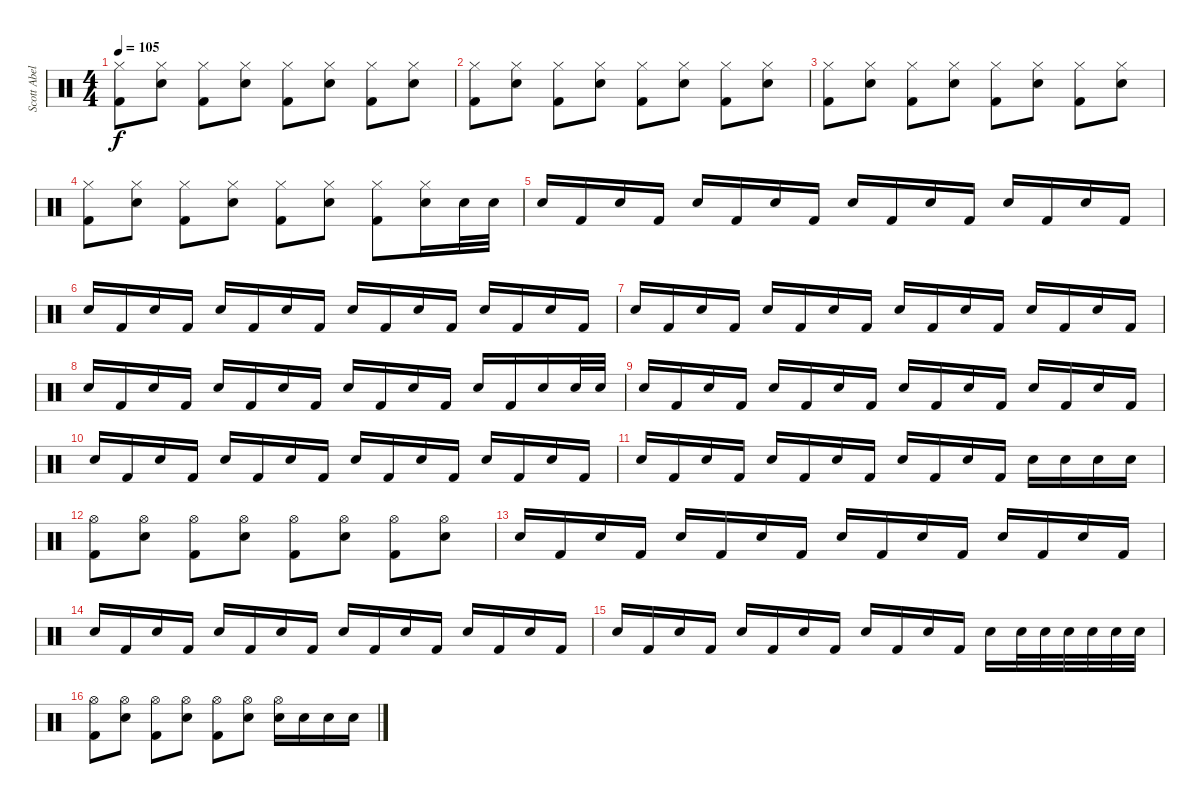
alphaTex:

\track ("Scott Abels - Drums" "Scott Abel") {instrument percussion}
\staff {score}
\articulation defaults
\ts (4 4)
\tempo 105
\clef neutral
\ks c
("Hi-Hat (closed)" "Kick (hit) 2").8{dy f} ("Hi-Hat (closed)" "Electric Snare (hit)").8 ("Hi-Hat (closed)" "Kick (hit) 2").8 ("Hi-Hat (closed)" "Electric Snare (hit)").8 ("Hi-Hat (closed)" "Kick (hit) 2").8 ("Hi-Hat (closed)" "Electric Snare (hit)").8 ("Hi-Hat (closed)" "Kick (hit) 2").8 ("Hi-Hat (closed)" "Electric Snare (hit)").8 |
("Hi-Hat (closed)" "Kick (hit) 2").8 ("Hi-Hat (closed)" "Electric Snare (hit)").8 ("Hi-Hat (closed)" "Kick (hit) 2").8 ("Hi-Hat (closed)" "Electric Snare (hit)").8 ("Hi-Hat (closed)" "Kick (hit) 2").8 ("Hi-Hat (closed)" "Electric Snare (hit)").8 ("Hi-Hat (closed)" "Kick (hit) 2").8 ("Hi-Hat (closed)" "Electric Snare (hit)").8 |
("Hi-Hat (closed)" "Kick (hit) 2").8 ("Hi-Hat (closed)" "Electric Snare (hit)").8 ("Hi-Hat (closed)" "Kick (hit) 2").8 ("Hi-Hat (closed)" "Electric Snare (hit)").8 ("Hi-Hat (closed)" "Kick (hit) 2").8 ("Hi-Hat (closed)" "Electric Snare (hit)").8 ("Hi-Hat (closed)" "Kick (hit) 2").8 ("Hi-Hat (closed)" "Electric Snare (hit)").8 |
("Hi-Hat (closed)" "Kick (hit) 2").8 ("Hi-Hat (closed)" "Electric Snare (hit)").8 ("Hi-Hat (closed)" "Kick (hit) 2").8 ("Hi-Hat (closed)" "Electric Snare (hit)").8 ("Hi-Hat (closed)" "Kick (hit) 2").8 ("Hi-Hat (closed)" "Electric Snare (hit)").8 ("Hi-Hat (closed)" "Kick (hit) 2").8 ("Hi-Hat (closed)" "Electric Snare (hit)").16 "Electric Snare (hit)".32 "Electric Snare (hit)".32 |
"Electric Snare (hit)".16 "Kick (hit) 2".16 "Electric Snare (hit)".16 "Kick (hit) 2".16 "Electric Snare (hit)".16 "Kick (hit) 2".16 "Electric Snare (hit)".16 "Kick (hit) 2".16 "Electric Snare (hit)".16 "Kick (hit) 2".16 "Electric Snare (hit)".16 "Kick (hit) 2".16 "Electric Snare (hit)".16 "Kick (hit) 2".16 "Electric Snare (hit)".16 "Kick (hit) 2".16 |
"Electric Snare (hit)".16 "Kick (hit) 2".16 "Electric Snare (hit)".16 "Kick (hit) 2".16 "Electric Snare (hit)".16 "Kick (hit) 2".16 "Electric Snare (hit)".16 "Kick (hit) 2".16 "Electric Snare (hit)".16 "Kick (hit) 2".16 "Electric Snare (hit)".16 "Kick (hit) 2".16 "Electric Snare (hit)".16 "Kick (hit) 2".16 "Electric Snare (hit)".16 "Kick (hit) 2".16 |
"Electric Snare (hit)".16 "Kick (hit) 2".16 "Electric Snare (hit)".16 "Kick (hit) 2".16 "Electric Snare (hit)".16 "Kick (hit) 2".16 "Electric Snare (hit)".16 "Kick (hit) 2".16 "Electric Snare (hit)".16 "Kick (hit) 2".16 "Electric Snare (hit)".16 "Kick (hit) 2".16 "Electric Snare (hit)".16 "Kick (hit) 2".16 "Electric Snare (hit)".16 "Kick (hit) 2".16 |
"Electric Snare (hit)".16 "Kick (hit) 2".16 "Electric Snare (hit)".16 "Kick (hit) 2".16 "Electric Snare (hit)".16 "Kick (hit) 2".16 "Electric Snare (hit)".16 "Kick (hit) 2".16 "Electric Snare (hit)".16 "Kick (hit) 2".16 "Electric Snare (hit)".16 "Kick (hit) 2".16 "Electric Snare (hit)".16 "Kick (hit) 2".16 "Electric Snare (hit)".16 "Electric Snare (hit)".32 "Electric Snare (hit)".32 |
"Electric Snare (hit)".16 "Kick (hit) 2".16 "Electric Snare (hit)".16 "Kick (hit) 2".16 "Electric Snare (hit)".16 "Kick (hit) 2".16 "Electric Snare (hit)".16 "Kick (hit) 2".16 "Electric Snare (hit)".16 "Kick (hit) 2".16 "Electric Snare (hit)".16 "Kick (hit) 2".16 "Electric Snare (hit)".16 "Kick (hit) 2".16 "Electric Snare (hit)".16 "Kick (hit) 2".16 |
"Electric Snare (hit)".16 "Kick (hit) 2".16 "Electric Snare (hit)".16 "Kick (hit) 2".16 "Electric Snare (hit)".16 "Kick (hit) 2".16 "Electric Snare (hit)".16 "Kick (hit) 2".16 "Electric Snare (hit)".16 "Kick (hit) 2".16 "Electric Snare (hit)".16 "Kick (hit) 2".16 "Electric Snare (hit)".16 "Kick (hit) 2".16 "Electric Snare (hit)".16 "Kick (hit) 2".16 |
"Electric Snare (hit)".16 "Kick (hit) 2".16 "Electric Snare (hit)".16 "Kick (hit) 2".16 "Electric Snare (hit)".16 "Kick (hit) 2".16 "Electric Snare (hit)".16 "Kick (hit) 2".16 "Electric Snare (hit)".16 "Kick (hit) 2".16 "Electric Snare (hit)".16 "Kick (hit) 2".16 "Electric Snare (hit)".16 "Electric Snare (hit)".16 "Electric Snare (hit)".16 "Electric Snare (hit)".16 |
("Hi-Hat (open)" "Kick (hit) 2").8 ("Hi-Hat (open)" "Electric Snare (hit)").8 ("Hi-Hat (open)" "Kick (hit) 2").8 ("Hi-Hat (open)" "Electric Snare (hit)").8 ("Hi-Hat (open)" "Kick (hit) 2").8 ("Hi-Hat (open)" "Electric Snare (hit)").8 ("Hi-Hat (open)" "Kick (hit) 2").8 ("Hi-Hat (open)" "Electric Snare (hit)").8 |
"Electric Snare (hit)".16 "Kick (hit) 2".16 "Electric Snare (hit)".16 "Kick (hit) 2".16 "Electric Snare (hit)".16 "Kick (hit) 2".16 "Electric Snare (hit)".16 "Kick (hit) 2".16 "Electric Snare (hit)".16 "Kick (hit) 2".16 "Electric Snare (hit)".16 "Kick (hit) 2".16 "Electric Snare (hit)".16 "Kick (hit) 2".16 "Electric Snare (hit)".16 "Kick (hit) 2".16 |
"Electric Snare (hit)".16 "Kick (hit) 2".16 "Electric Snare (hit)".16 "Kick (hit) 2".16 "Electric Snare (hit)".16 "Kick (hit) 2".16 "Electric Snare (hit)".16 "Kick (hit) 2".16 "Electric Snare (hit)".16 "Kick (hit) 2".16 "Electric Snare (hit)".16 "Kick (hit) 2".16 "Electric Snare (hit)".16 "Kick (hit) 2".16 "Electric Snare (hit)".16 "Kick (hit) 2".16 |
"Electric Snare (hit)".16 "Kick (hit) 2".16 "Electric Snare (hit)".16 "Kick (hit) 2".16 "Electric Snare (hit)".16 "Kick (hit) 2".16 "Electric Snare (hit)".16 "Kick (hit) 2".16 "Electric Snare (hit)".16 "Kick (hit) 2".16 "Electric Snare (hit)".16 "Kick (hit) 2".16 "Electric Snare (hit)".16 "Electric Snare (hit)".32 "Electric Snare (hit)".32 "Electric Snare (hit)".32 "Electric Snare (hit)".32 "Electric Snare (hit)".32 "Electric Snare (hit)".32 |
("Hi-Hat (open)" "Kick (hit) 2").8 ("Hi-Hat (open)" "Electric Snare (hit)").8 ("Hi-Hat (open)" "Kick (hit) 2").8 ("Hi-Hat (open)" "Electric Snare (hit)").8 ("Hi-Hat (open)" "Kick (hit) 2").8 ("Hi-Hat (open)" "Electric Snare (hit)").8 ("Hi-Hat (open)" "Electric Snare (hit)").16 "Electric Snare (hit)".16 "Electric Snare (hit)".16 "Electric Snare (hit)".16
